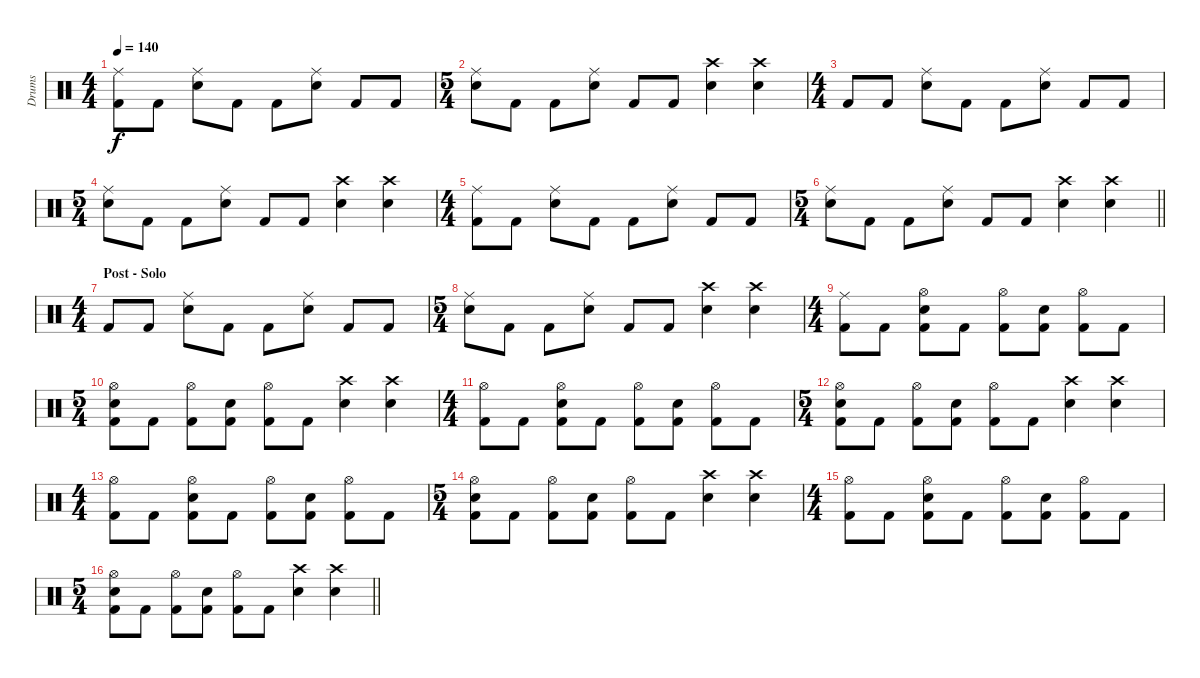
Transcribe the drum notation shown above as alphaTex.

\track ("Drums" "Drums") {instrument percussion}
\staff {score}
\articulation defaults
\ts (4 4)
\tempo 140
\clef neutral
\ks c
("Ride (middle)" "Kick (hit) 2").8{dy f} "Kick (hit) 2".8 ("Ride (middle)" "Electric Snare (hit)").8 "Kick (hit) 2".8 "Kick (hit) 2".8 ("Ride (middle)" "Electric Snare (hit)").8 "Kick (hit) 2".8 "Kick (hit) 2".8 |
\ts (5 4)
("Ride (middle)" "Electric Snare (hit)").8 "Kick (hit) 2".8 "Kick (hit) 2".8 ("Ride (middle)" "Electric Snare (hit)").8 "Kick (hit) 2".8 "Kick (hit) 2".8 ("Crash high (hit)" "Electric Snare (hit)").4 ("Crash high (hit)" "Electric Snare (hit)").4 |
\ts (4 4)
"Kick (hit) 2".8 "Kick (hit) 2".8 ("Ride (middle)" "Electric Snare (hit)").8 "Kick (hit) 2".8 "Kick (hit) 2".8 ("Ride (middle)" "Electric Snare (hit)").8 "Kick (hit) 2".8 "Kick (hit) 2".8 |
\ts (5 4)
("Ride (middle)" "Electric Snare (hit)").8 "Kick (hit) 2".8 "Kick (hit) 2".8 ("Ride (middle)" "Electric Snare (hit)").8 "Kick (hit) 2".8 "Kick (hit) 2".8 ("Crash high (hit)" "Electric Snare (hit)").4 ("Crash high (hit)" "Electric Snare (hit)").4 |
\ts (4 4)
("Ride (middle)" "Kick (hit) 2").8 "Kick (hit) 2".8 ("Ride (middle)" "Electric Snare (hit)").8 "Kick (hit) 2".8 "Kick (hit) 2".8 ("Ride (middle)" "Electric Snare (hit)").8 "Kick (hit) 2".8 "Kick (hit) 2".8 |
\ts (5 4)
\barLineRight lightlight
("Ride (middle)" "Electric Snare (hit)").8 "Kick (hit) 2".8 "Kick (hit) 2".8 ("Ride (middle)" "Electric Snare (hit)").8 "Kick (hit) 2".8 "Kick (hit) 2".8 ("Crash high (hit)" "Electric Snare (hit)").4 ("Crash high (hit)" "Electric Snare (hit)").4 |
\ts (4 4)
\section ("" "Post - Solo")
"Kick (hit) 2".8 "Kick (hit) 2".8 ("Ride (middle)" "Electric Snare (hit)").8 "Kick (hit) 2".8 "Kick (hit) 2".8 ("Ride (middle)" "Electric Snare (hit)").8 "Kick (hit) 2".8 "Kick (hit) 2".8 |
\ts (5 4)
("Ride (middle)" "Electric Snare (hit)").8 "Kick (hit) 2".8 "Kick (hit) 2".8 ("Ride (middle)" "Electric Snare (hit)").8 "Kick (hit) 2".8 "Kick (hit) 2".8 ("Crash high (hit)" "Electric Snare (hit)").4 ("Crash high (hit)" "Electric Snare (hit)").4 |
\ts (4 4)
("Ride (middle)" "Kick (hit) 2").8 "Kick (hit) 2".8 ("Hi-Hat (open)" "Electric Snare (hit)" "Kick (hit) 2").8 "Kick (hit) 2".8 ("Hi-Hat (open)" "Kick (hit) 2").8 ("Electric Snare (hit)" "Kick (hit) 2").8 ("Hi-Hat (open)" "Kick (hit) 2").8 "Kick (hit) 2".8 |
\ts (5 4)
("Hi-Hat (open)" "Electric Snare (hit)" "Kick (hit) 2").8 "Kick (hit) 2".8 ("Hi-Hat (open)" "Kick (hit) 2").8 ("Electric Snare (hit)" "Kick (hit) 2").8 ("Hi-Hat (open)" "Kick (hit) 2").8 "Kick (hit) 2".8 ("Crash high (hit)" "Electric Snare (hit)").4 ("Crash high (hit)" "Electric Snare (hit)").4 |
\ts (4 4)
("Hi-Hat (open)" "Kick (hit) 2").8 "Kick (hit) 2".8 ("Hi-Hat (open)" "Electric Snare (hit)" "Kick (hit) 2").8 "Kick (hit) 2".8 ("Hi-Hat (open)" "Kick (hit) 2").8 ("Electric Snare (hit)" "Kick (hit) 2").8 ("Hi-Hat (open)" "Kick (hit) 2").8 "Kick (hit) 2".8 |
\ts (5 4)
("Hi-Hat (open)" "Electric Snare (hit)" "Kick (hit) 2").8 "Kick (hit) 2".8 ("Hi-Hat (open)" "Kick (hit) 2").8 ("Electric Snare (hit)" "Kick (hit) 2").8 ("Hi-Hat (open)" "Kick (hit) 2").8 "Kick (hit) 2".8 ("Crash high (hit)" "Electric Snare (hit)").4 ("Crash high (hit)" "Electric Snare (hit)").4 |
\ts (4 4)
("Hi-Hat (open)" "Kick (hit) 2").8 "Kick (hit) 2".8 ("Hi-Hat (open)" "Electric Snare (hit)" "Kick (hit) 2").8 "Kick (hit) 2".8 ("Hi-Hat (open)" "Kick (hit) 2").8 ("Electric Snare (hit)" "Kick (hit) 2").8 ("Hi-Hat (open)" "Kick (hit) 2").8 "Kick (hit) 2".8 |
\ts (5 4)
("Hi-Hat (open)" "Electric Snare (hit)" "Kick (hit) 2").8 "Kick (hit) 2".8 ("Hi-Hat (open)" "Kick (hit) 2").8 ("Electric Snare (hit)" "Kick (hit) 2").8 ("Hi-Hat (open)" "Kick (hit) 2").8 "Kick (hit) 2".8 ("Crash high (hit)" "Electric Snare (hit)").4 ("Crash high (hit)" "Electric Snare (hit)").4 |
\ts (4 4)
("Hi-Hat (open)" "Kick (hit) 2").8 "Kick (hit) 2".8 ("Hi-Hat (open)" "Electric Snare (hit)" "Kick (hit) 2").8 "Kick (hit) 2".8 ("Hi-Hat (open)" "Kick (hit) 2").8 ("Electric Snare (hit)" "Kick (hit) 2").8 ("Hi-Hat (open)" "Kick (hit) 2").8 "Kick (hit) 2".8 |
\ts (5 4)
\barLineRight lightlight
("Hi-Hat (open)" "Electric Snare (hit)" "Kick (hit) 2").8 "Kick (hit) 2".8 ("Hi-Hat (open)" "Kick (hit) 2").8 ("Electric Snare (hit)" "Kick (hit) 2").8 ("Hi-Hat (open)" "Kick (hit) 2").8 "Kick (hit) 2".8 ("Crash high (hit)" "Electric Snare (hit)").4 ("Crash high (hit)" "Electric Snare (hit)").4
